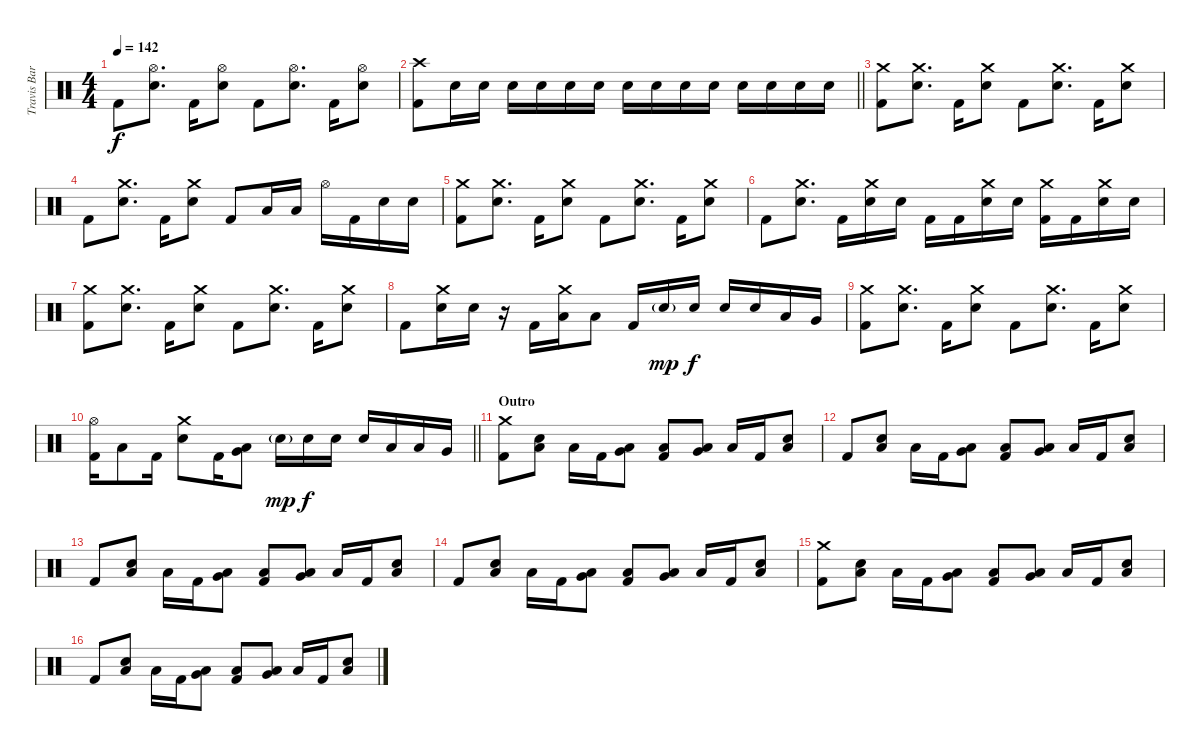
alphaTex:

\track ("Travis Barker - Drums" "Travis Bar") {instrument percussion}
\staff {score}
\articulation defaults
\ts (4 4)
\tempo 142
\clef neutral
\ks c "Kick (hit) 2".8{dy f}
("Hi-Hat (open)" "Electric Snare (hit)").8{d} "Kick (hit) 2".16 ("Hi-Hat (open)" "Electric Snare (hit)").8 "Kick (hit) 2".8 ("Hi-Hat (open)" "Electric Snare (hit)").8{d} "Kick (hit) 2".16 ("Hi-Hat (open)" "Electric Snare (hit)").8 |
\barLineRight lightlight
("Crash high (hit)" "Kick (hit) 2").8 "Electric Snare (hit)".16 "Electric Snare (hit)".16 "Electric Snare (hit)".16 "Electric Snare (hit)".16 "Electric Snare (hit)".16 "Electric Snare (hit)".16 "Electric Snare (hit)".16 "Electric Snare (hit)".16 "Electric Snare (hit)".16 "Electric Snare (hit)".16 "Electric Snare (hit)".16 "Electric Snare (hit)".16 "Electric Snare (hit)".16 "Electric Snare (hit)".16 |
("Crash medium (hit)" "Kick (hit) 2").8 ("Crash medium (hit)" "Electric Snare (hit)").8{d} "Kick (hit) 2".16 ("Crash medium (hit)" "Electric Snare (hit)").8 "Kick (hit) 2".8 ("Crash medium (hit)" "Electric Snare (hit)").8{d} "Kick (hit) 2".16 ("Crash medium (hit)" "Electric Snare (hit)").8 |
"Kick (hit) 2".8 ("Crash medium (hit)" "Electric Snare (hit)").8{d} "Kick (hit) 2".16 ("Crash medium (hit)" "Electric Snare (hit)").8 "Kick (hit) 2".8 "Low Tom (hit)".16 "Low Tom (hit)".16 "Hi-Hat (open)".16 "Kick (hit) 2".16 "Electric Snare (hit)".16 "Electric Snare (hit)".16 |
("Crash medium (hit)" "Kick (hit) 2").8 ("Crash medium (hit)" "Electric Snare (hit)").8{d} "Kick (hit) 2".16 ("Crash medium (hit)" "Electric Snare (hit)").8 "Kick (hit) 2".8 ("Crash medium (hit)" "Electric Snare (hit)").8{d} "Kick (hit) 2".16 ("Crash medium (hit)" "Electric Snare (hit)").8 |
"Kick (hit) 2".8 ("Crash medium (hit)" "Electric Snare (hit)").8{d} "Kick (hit) 2".16 ("Crash medium (hit)" "Electric Snare (hit)").16 "Electric Snare (hit)".16 "Kick (hit) 2".16 "Kick (hit) 2".16 ("Crash medium (hit)" "Electric Snare (hit)").16 "Electric Snare (hit)".16 ("Crash medium (hit)" "Kick (hit) 2").16 "Kick (hit) 2".16 ("Crash medium (hit)" "Electric Snare (hit)").16 "Electric Snare (hit)".16 |
("Crash medium (hit)" "Kick (hit) 2").8 ("Crash medium (hit)" "Electric Snare (hit)").8{d} "Kick (hit) 2".16 ("Crash medium (hit)" "Electric Snare (hit)").8 "Kick (hit) 2".8 ("Crash medium (hit)" "Electric Snare (hit)").8{d} "Kick (hit) 2".16 ("Crash medium (hit)" "Electric Snare (hit)").8 |
"Kick (hit) 2".8 ("Crash medium (hit)" "Electric Snare (hit)").16 "Electric Snare (hit)".16 r.16 "Kick (hit) 2".16 ("Crash medium (hit)" "Low Tom (hit)").16 "Low Tom (hit)".8 "Kick (hit) 2".16 "Electric Snare (hit)"{g}.16{dy mp} "Electric Snare (hit)".16{dy f} "Electric Snare (hit)".16 "Electric Snare (hit)".16 "Low Tom (hit)".16 "Very Low Tom (hit)".16 |
("Crash medium (hit)" "Kick (hit) 2").8 ("Crash medium (hit)" "Electric Snare (hit)").8{d} "Kick (hit) 2".16 ("Crash medium (hit)" "Electric Snare (hit)").8 "Kick (hit) 2".8 ("Crash medium (hit)" "Electric Snare (hit)").8{d} "Kick (hit) 2".16 ("Crash medium (hit)" "Electric Snare (hit)").8 |
\barLineRight lightlight
("Hi-Hat (open)" "Kick (hit) 2").16 "Low Tom (hit)".8 "Kick (hit) 2".16 ("Crash medium (hit)" "Electric Snare (hit)").8 "Kick (hit) 2".16 ("Very Low Tom (hit)" "Low Tom (hit)").8 "Electric Snare (hit)"{g}.16{dy mp} "Electric Snare (hit)".16{dy f} "Electric Snare (hit)".16 "Electric Snare (hit)".16 "Low Tom (hit)".16 "Low Tom (hit)".16 "Very Low Tom (hit)".16 |
\section ("" "Outro")
("Crash medium (hit)" "Kick (hit) 2").8 ("Low Floor Tom (hit)" "Electric Snare (hit)").8 "Low Floor Tom (hit)".16{beam Down} "Kick (hit) 2".16{beam Down} ("Low Tom (hit)" "Very Low Tom (hit)").8{beam Down} ("Low Floor Tom (hit)" "Kick (hit) 2").8 ("Low Tom (hit)" "Very Low Tom (hit)").8 "Low Floor Tom (hit)".16 "Kick (hit) 2".16 ("Electric Snare (hit)" "Low Floor Tom (hit)").8 |
"Kick (hit) 2".8 ("Low Floor Tom (hit)" "Electric Snare (hit)").8 "Low Floor Tom (hit)".16{beam Down} "Kick (hit) 2".16{beam Down} ("Low Tom (hit)" "Very Low Tom (hit)").8{beam Down} ("Low Floor Tom (hit)" "Kick (hit) 2").8 ("Low Tom (hit)" "Very Low Tom (hit)").8 "Low Floor Tom (hit)".16 "Kick (hit) 2".16 ("Electric Snare (hit)" "Low Floor Tom (hit)").8 |
"Kick (hit) 2".8 ("Low Floor Tom (hit)" "Electric Snare (hit)").8 "Low Floor Tom (hit)".16{beam Down} "Kick (hit) 2".16{beam Down} ("Low Tom (hit)" "Very Low Tom (hit)").8{beam Down} ("Low Floor Tom (hit)" "Kick (hit) 2").8 ("Low Tom (hit)" "Very Low Tom (hit)").8 "Low Floor Tom (hit)".16 "Kick (hit) 2".16 ("Electric Snare (hit)" "Low Floor Tom (hit)").8 |
"Kick (hit) 2".8 ("Low Floor Tom (hit)" "Electric Snare (hit)").8 "Low Floor Tom (hit)".16{beam Down} "Kick (hit) 2".16{beam Down} ("Low Tom (hit)" "Very Low Tom (hit)").8{beam Down} ("Low Floor Tom (hit)" "Kick (hit) 2").8 ("Low Tom (hit)" "Very Low Tom (hit)").8 "Low Floor Tom (hit)".16 "Kick (hit) 2".16 ("Electric Snare (hit)" "Low Floor Tom (hit)").8 |
("Crash medium (hit)" "Kick (hit) 2").8 ("Low Floor Tom (hit)" "Electric Snare (hit)").8 "Low Floor Tom (hit)".16{beam Down} "Kick (hit) 2".16{beam Down} ("Low Tom (hit)" "Very Low Tom (hit)").8{beam Down} ("Low Floor Tom (hit)" "Kick (hit) 2").8 ("Low Tom (hit)" "Very Low Tom (hit)").8 "Low Floor Tom (hit)".16 "Kick (hit) 2".16 ("Electric Snare (hit)" "Low Floor Tom (hit)").8 |
"Kick (hit) 2".8 ("Low Floor Tom (hit)" "Electric Snare (hit)").8 "Low Floor Tom (hit)".16{beam Down} "Kick (hit) 2".16{beam Down} ("Low Tom (hit)" "Very Low Tom (hit)").8{beam Down} ("Low Floor Tom (hit)" "Kick (hit) 2").8 ("Low Tom (hit)" "Very Low Tom (hit)").8 "Low Floor Tom (hit)".16 "Kick (hit) 2".16 ("Electric Snare (hit)" "Low Floor Tom (hit)").8
